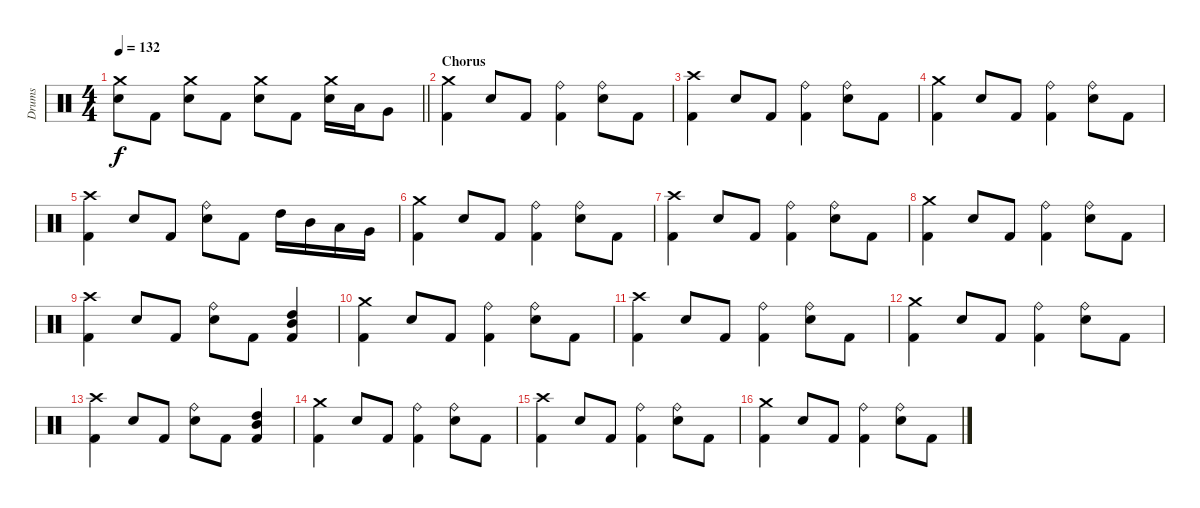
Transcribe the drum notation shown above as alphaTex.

\track ("Drums" "Drums") {instrument percussion}
\staff {score}
\articulation defaults
\ts (4 4)
\tempo 132
\clef neutral
\barLineRight lightlight
\ks c
("Electric Snare (hit)" "Crash medium (hit)").8{dy f} "Kick (hit) 2".8 ("Electric Snare (hit)" "Crash medium (hit)").8 "Kick (hit) 2".8 ("Electric Snare (hit)" "Crash medium (hit)").8 "Kick (hit) 2".8 ("Electric Snare (hit)" "Crash medium (hit)").16 "Low Tom (hit)".16 "Very Low Tom (hit)".8 |
\section ("" "Chorus")
("Kick (hit) 2" "Crash medium (hit)").4 "Electric Snare (hit)".8 "Kick (hit) 2".8 ("Kick (hit) 2" "Ride (bell)").4 ("Electric Snare (hit)" "Ride (bell)").8 "Kick (hit) 2".8 |
("Kick (hit) 2" "Crash high (hit)").4 "Electric Snare (hit)".8 "Kick (hit) 2".8 ("Kick (hit) 2" "Ride (bell)").4 ("Electric Snare (hit)" "Ride (bell)").8 "Kick (hit) 2".8 |
("Kick (hit) 2" "Crash medium (hit)").4 "Electric Snare (hit)".8 "Kick (hit) 2".8 ("Kick (hit) 2" "Ride (bell)").4 ("Electric Snare (hit)" "Ride (bell)").8 "Kick (hit) 2".8 |
("Kick (hit) 2" "Crash high (hit)").4 "Electric Snare (hit)".8 "Kick (hit) 2".8 ("Electric Snare (hit)" "Ride (bell)").8 "Kick (hit) 2".8 "High Tom (hit)".16 "Mid Tom (hit)".16 "Low Tom (hit)".16 "Very Low Tom (hit)".16 |
("Kick (hit) 2" "Crash medium (hit)").4 "Electric Snare (hit)".8 "Kick (hit) 2".8 ("Kick (hit) 2" "Ride (bell)").4 ("Electric Snare (hit)" "Ride (bell)").8 "Kick (hit) 2".8 |
("Kick (hit) 2" "Crash high (hit)").4 "Electric Snare (hit)".8 "Kick (hit) 2".8 ("Kick (hit) 2" "Ride (bell)").4 ("Electric Snare (hit)" "Ride (bell)").8 "Kick (hit) 2".8 |
("Kick (hit) 2" "Crash medium (hit)").4 "Electric Snare (hit)".8 "Kick (hit) 2".8 ("Kick (hit) 2" "Ride (bell)").4 ("Electric Snare (hit)" "Ride (bell)").8 "Kick (hit) 2".8 |
("Kick (hit) 2" "Crash high (hit)").4 "Electric Snare (hit)".8 "Kick (hit) 2".8 ("Electric Snare (hit)" "Ride (bell)").8 "Kick (hit) 2".8 ("Kick (hit) 2" "Mid Tom (hit)" "High Tom (hit)").4 |
("Kick (hit) 2" "Crash medium (hit)").4 "Electric Snare (hit)".8 "Kick (hit) 2".8 ("Kick (hit) 2" "Ride (bell)").4 ("Electric Snare (hit)" "Ride (bell)").8 "Kick (hit) 2".8 |
("Kick (hit) 2" "Crash high (hit)").4 "Electric Snare (hit)".8 "Kick (hit) 2".8 ("Kick (hit) 2" "Ride (bell)").4 ("Electric Snare (hit)" "Ride (bell)").8 "Kick (hit) 2".8 |
("Kick (hit) 2" "Crash medium (hit)").4 "Electric Snare (hit)".8 "Kick (hit) 2".8 ("Kick (hit) 2" "Ride (bell)").4 ("Electric Snare (hit)" "Ride (bell)").8 "Kick (hit) 2".8 |
("Kick (hit) 2" "Crash high (hit)").4 "Electric Snare (hit)".8 "Kick (hit) 2".8 ("Electric Snare (hit)" "Ride (bell)").8 "Kick (hit) 2".8 ("Kick (hit) 2" "Mid Tom (hit)" "High Tom (hit)").4 |
("Kick (hit) 2" "Crash medium (hit)").4 "Electric Snare (hit)".8 "Kick (hit) 2".8 ("Kick (hit) 2" "Ride (bell)").4 ("Electric Snare (hit)" "Ride (bell)").8 "Kick (hit) 2".8 |
("Kick (hit) 2" "Crash high (hit)").4 "Electric Snare (hit)".8 "Kick (hit) 2".8 ("Kick (hit) 2" "Ride (bell)").4 ("Electric Snare (hit)" "Ride (bell)").8 "Kick (hit) 2".8 |
("Kick (hit) 2" "Crash medium (hit)").4 "Electric Snare (hit)".8 "Kick (hit) 2".8 ("Kick (hit) 2" "Ride (bell)").4 ("Electric Snare (hit)" "Ride (bell)").8 "Kick (hit) 2".8
